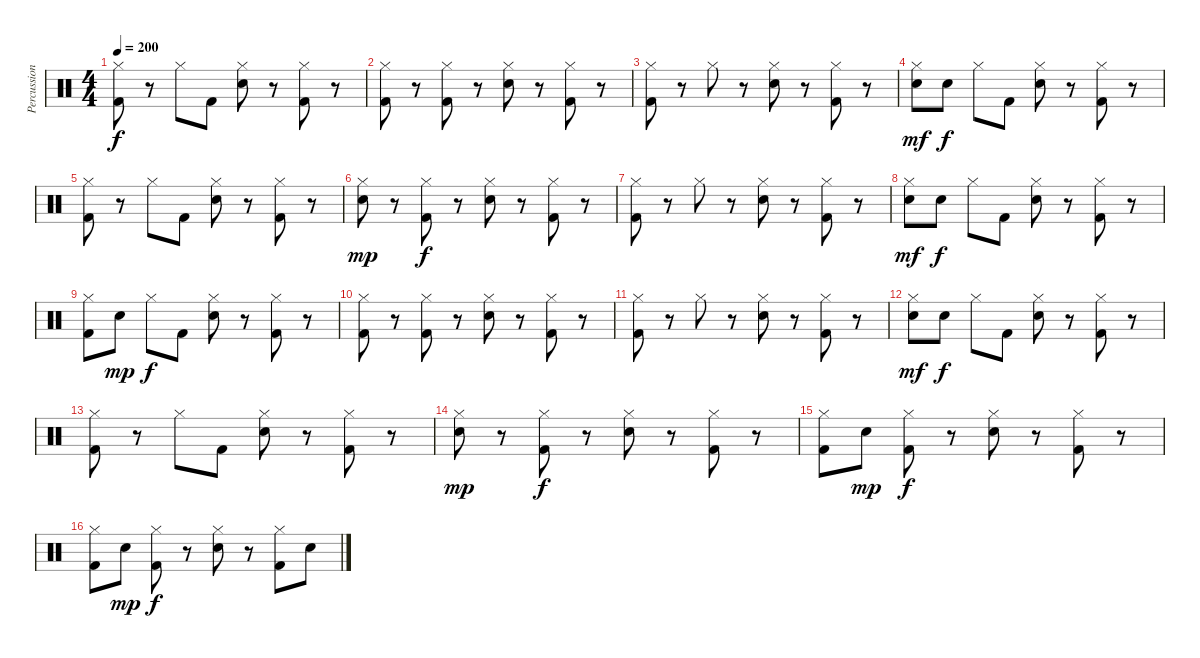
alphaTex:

\track ("Percussion" "Percussion") {instrument percussion}
\staff {score}
\articulation defaults
\ts (4 4)
\tempo 200
\clef neutral
\ks c
("Kick (hit) 2" "Hi-Hat (closed)").8{dy f} r.8 "Hi-Hat (closed)".8 "Kick (hit) 2".8 ("Snare (hit) 2" "Hi-Hat (closed)").8 r.8 ("Hi-Hat (closed)" "Kick (hit) 2").8 r.8 |
("Kick (hit) 2" "Hi-Hat (closed)").8 r.8 ("Kick (hit) 2" "Hi-Hat (closed)").8 r.8 ("Snare (hit) 2" "Hi-Hat (closed)").8 r.8 ("Kick (hit) 2" "Hi-Hat (closed)").8 r.8 |
("Kick (hit) 2" "Hi-Hat (closed)").8 r.8 "Hi-Hat (closed)".8 r.8 ("Snare (hit) 2" "Hi-Hat (closed)").8 r.8 ("Hi-Hat (closed)" "Kick (hit) 2").8 r.8 |
("Snare (hit) 2" "Hi-Hat (closed)").8{dy mf} "Snare (hit) 2".8{dy f} "Hi-Hat (closed)".8 "Kick (hit) 2".8 ("Snare (hit) 2" "Hi-Hat (closed)").8 r.8 ("Kick (hit) 2" "Hi-Hat (closed)").8 r.8 |
("Kick (hit) 2" "Hi-Hat (closed)").8 r.8 "Hi-Hat (closed)".8 "Kick (hit) 2".8 ("Snare (hit) 2" "Hi-Hat (closed)").8 r.8 ("Hi-Hat (closed)" "Kick (hit) 2").8 r.8 |
("Snare (hit) 2" "Hi-Hat (closed)").8{dy mp} r.8 ("Kick (hit) 2" "Hi-Hat (closed)").8{dy f} r.8 ("Snare (hit) 2" "Hi-Hat (closed)").8 r.8 ("Kick (hit) 2" "Hi-Hat (closed)").8 r.8 |
("Kick (hit) 2" "Hi-Hat (closed)").8 r.8 "Hi-Hat (closed)".8 r.8 ("Snare (hit) 2" "Hi-Hat (closed)").8 r.8 ("Hi-Hat (closed)" "Kick (hit) 2").8 r.8 |
("Snare (hit) 2" "Hi-Hat (closed)").8{dy mf} "Snare (hit) 2".8{dy f} "Hi-Hat (closed)".8 "Kick (hit) 2".8 ("Snare (hit) 2" "Hi-Hat (closed)").8 r.8 ("Kick (hit) 2" "Hi-Hat (closed)").8 r.8 |
("Kick (hit) 2" "Hi-Hat (closed)").8 "Snare (hit) 2".8{dy mp} "Hi-Hat (closed)".8{dy f} "Kick (hit) 2".8 ("Snare (hit) 2" "Hi-Hat (closed)").8 r.8 ("Hi-Hat (closed)" "Kick (hit) 2").8 r.8 |
("Kick (hit) 2" "Hi-Hat (closed)").8 r.8 ("Kick (hit) 2" "Hi-Hat (closed)").8 r.8 ("Snare (hit) 2" "Hi-Hat (closed)").8 r.8 ("Kick (hit) 2" "Hi-Hat (closed)").8 r.8 |
("Kick (hit) 2" "Hi-Hat (closed)").8 r.8 "Hi-Hat (closed)".8 r.8 ("Snare (hit) 2" "Hi-Hat (closed)").8 r.8 ("Hi-Hat (closed)" "Kick (hit) 2").8 r.8 |
("Snare (hit) 2" "Hi-Hat (closed)").8{dy mf} "Snare (hit) 2".8{dy f} "Hi-Hat (closed)".8 "Kick (hit) 2".8 ("Snare (hit) 2" "Hi-Hat (closed)").8 r.8 ("Kick (hit) 2" "Hi-Hat (closed)").8 r.8 |
("Kick (hit) 2" "Hi-Hat (closed)").8 r.8 "Hi-Hat (closed)".8 "Kick (hit) 2".8 ("Snare (hit) 2" "Hi-Hat (closed)").8 r.8 ("Hi-Hat (closed)" "Kick (hit) 2").8 r.8 |
("Snare (hit) 2" "Hi-Hat (closed)").8{dy mp} r.8 ("Kick (hit) 2" "Hi-Hat (closed)").8{dy f} r.8 ("Snare (hit) 2" "Hi-Hat (closed)").8 r.8 ("Kick (hit) 2" "Hi-Hat (closed)").8 r.8 |
("Kick (hit) 2" "Hi-Hat (closed)").8 "Snare (hit) 2".8{dy mp} ("Kick (hit) 2" "Hi-Hat (closed)").8{dy f} r.8 ("Snare (hit) 2" "Hi-Hat (closed)").8 r.8 ("Hi-Hat (closed)" "Kick (hit) 2").8 r.8 |
("Kick (hit) 2" "Hi-Hat (closed)").8 "Snare (hit) 2".8{dy mp} ("Kick (hit) 2" "Hi-Hat (closed)").8{dy f} r.8 ("Snare (hit) 2" "Hi-Hat (closed)").8 r.8 ("Kick (hit) 2" "Hi-Hat (closed)").8 "Snare (hit) 2".8
